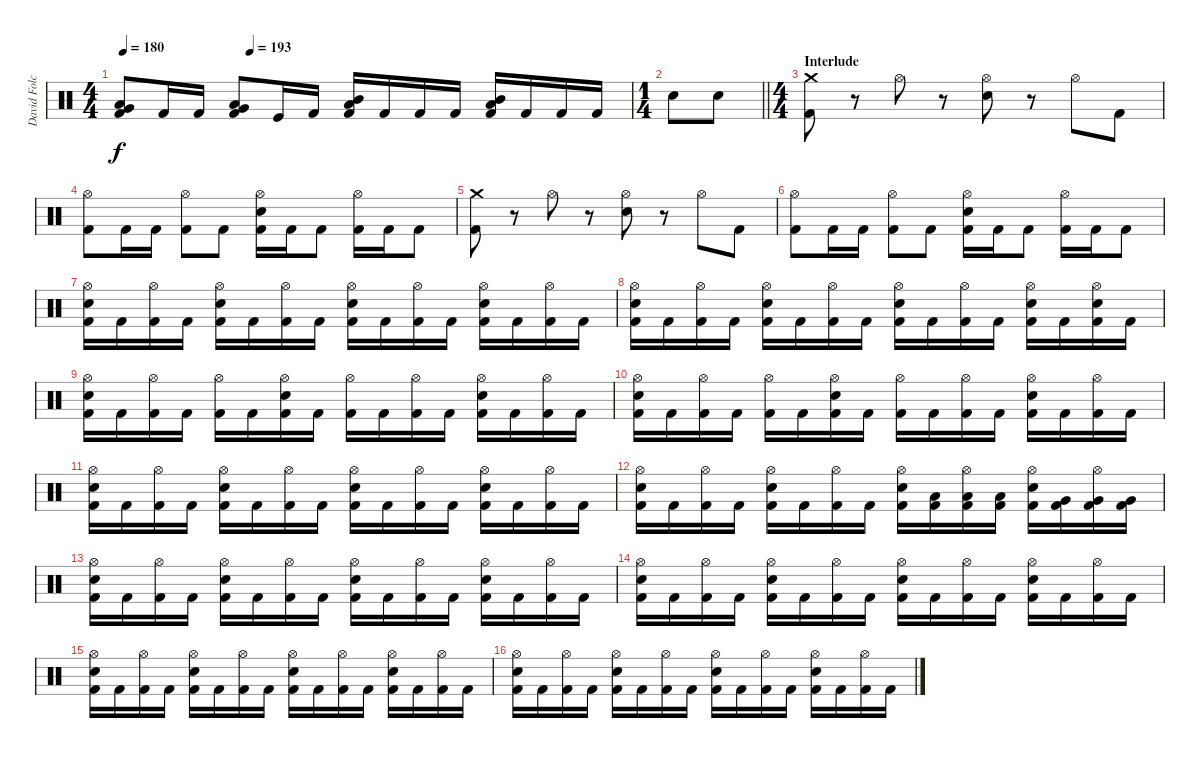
\track ("David Folchitto (Drums)" "David Folc") {instrument percussion}
\staff {score}
\articulation defaults
\ts (4 4)
\tempo 180
\tempo (193 0.25)
\clef neutral
\ks c
("Low Tom (hit)" "Very Low Tom (hit)" "Kick (hit) 2").8{dy f} "Kick (hit) 2".16 "Kick (hit) 2".16 ("Low Tom (hit)" "Very Low Tom (hit)" "Kick (hit) 2").8 "Kick (hit)".16 "Kick (hit) 2".16 ("Mid Tom (hit)" "Low Tom (hit)" "Kick (hit) 2").16 "Kick (hit) 2".16 "Kick (hit) 2".16 "Kick (hit) 2".16 ("Mid Tom (hit)" "Low Tom (hit)" "Kick (hit) 2").16 "Kick (hit) 2".16 "Kick (hit) 2".16 "Kick (hit) 2".16 |
\ts (1 4)
\barLineRight lightlight "Snare (hit) 2".8 "Snare (hit) 2".8
|
\ts (4 4)
\section ("" "Interlude")
("Crash medium (hit)" "Kick (hit) 2").8 r.8 "Hi-Hat (open)".8 r.8 ("Hi-Hat (open)" "Snare (hit) 2").8 r.8 "Hi-Hat (open)".8 "Kick (hit) 2".8 |
("Hi-Hat (open)" "Kick (hit) 2").8 "Kick (hit) 2".16 "Kick (hit) 2".16 ("Hi-Hat (open)" "Kick (hit) 2").8 "Kick (hit) 2".8 ("Hi-Hat (open)" "Snare (hit) 2" "Kick (hit) 2").16 "Kick (hit) 2".16 "Kick (hit) 2".8 ("Hi-Hat (open)" "Kick (hit) 2").16 "Kick (hit) 2".16 "Kick (hit) 2".8 |
("Crash medium (hit)" "Kick (hit) 2").8 r.8 "Hi-Hat (open)".8 r.8 ("Hi-Hat (open)" "Snare (hit) 2").8 r.8 "Hi-Hat (open)".8 "Kick (hit) 2".8 |
("Hi-Hat (open)" "Kick (hit) 2").8 "Kick (hit) 2".16 "Kick (hit) 2".16 ("Hi-Hat (open)" "Kick (hit) 2").8 "Kick (hit) 2".8 ("Hi-Hat (open)" "Snare (hit) 2" "Kick (hit) 2").16 "Kick (hit) 2".16 "Kick (hit) 2".8 ("Hi-Hat (open)" "Kick (hit) 2").16 "Kick (hit) 2".16 "Kick (hit) 2".8 |
("Hi-Hat (open)" "Snare (hit) 2" "Kick (hit) 2").16 "Kick (hit) 2".16 ("Hi-Hat (open)" "Kick (hit) 2").16 "Kick (hit) 2".16 ("Hi-Hat (open)" "Snare (hit) 2" "Kick (hit) 2").16 "Kick (hit) 2".16 ("Hi-Hat (open)" "Kick (hit) 2").16 "Kick (hit) 2".16 ("Hi-Hat (open)" "Snare (hit) 2" "Kick (hit) 2").16 "Kick (hit) 2".16 ("Hi-Hat (open)" "Kick (hit) 2").16 "Kick (hit) 2".16 ("Hi-Hat (open)" "Snare (hit) 2" "Kick (hit) 2").16 "Kick (hit) 2".16 ("Hi-Hat (open)" "Kick (hit) 2").16 "Kick (hit) 2".16 |
("Hi-Hat (open)" "Snare (hit) 2" "Kick (hit) 2").16 "Kick (hit) 2".16 ("Hi-Hat (open)" "Kick (hit) 2").16 "Kick (hit) 2".16 ("Hi-Hat (open)" "Snare (hit) 2" "Kick (hit) 2").16 "Kick (hit) 2".16 ("Hi-Hat (open)" "Kick (hit) 2").16 "Kick (hit) 2".16 ("Hi-Hat (open)" "Snare (hit) 2" "Kick (hit) 2").16 "Kick (hit) 2".16 ("Hi-Hat (open)" "Kick (hit) 2").16 "Kick (hit) 2".16 ("Hi-Hat (open)" "Snare (hit) 2" "Kick (hit) 2").16 "Kick (hit) 2".16 ("Hi-Hat (open)" "Snare (hit) 2" "Kick (hit) 2").16 "Kick (hit) 2".16 |
("Hi-Hat (open)" "Snare (hit) 2" "Kick (hit) 2").16 "Kick (hit) 2".16 ("Hi-Hat (open)" "Kick (hit) 2").16 "Kick (hit) 2".16 ("Hi-Hat (open)" "Kick (hit) 2").16 "Kick (hit) 2".16 ("Hi-Hat (open)" "Snare (hit) 2" "Kick (hit) 2").16 "Kick (hit) 2".16 ("Hi-Hat (open)" "Kick (hit) 2").16 "Kick (hit) 2".16 ("Hi-Hat (open)" "Kick (hit) 2").16 "Kick (hit) 2".16 ("Hi-Hat (open)" "Snare (hit) 2" "Kick (hit) 2").16 "Kick (hit) 2".16 ("Hi-Hat (open)" "Kick (hit) 2").16 "Kick (hit) 2".16 |
("Hi-Hat (open)" "Snare (hit) 2" "Kick (hit) 2").16 "Kick (hit) 2".16 ("Hi-Hat (open)" "Kick (hit) 2").16 "Kick (hit) 2".16 ("Hi-Hat (open)" "Kick (hit) 2").16 "Kick (hit) 2".16 ("Hi-Hat (open)" "Snare (hit) 2" "Kick (hit) 2").16 "Kick (hit) 2".16 ("Hi-Hat (open)" "Kick (hit) 2").16 "Kick (hit) 2".16 ("Hi-Hat (open)" "Kick (hit) 2").16 "Kick (hit) 2".16 ("Hi-Hat (open)" "Snare (hit) 2" "Kick (hit) 2").16 "Kick (hit) 2".16 ("Hi-Hat (open)" "Kick (hit) 2").16 "Kick (hit) 2".16 |
("Hi-Hat (open)" "Snare (hit) 2" "Kick (hit) 2").16 "Kick (hit) 2".16 ("Hi-Hat (open)" "Kick (hit) 2").16 "Kick (hit) 2".16 ("Hi-Hat (open)" "Snare (hit) 2" "Kick (hit) 2").16 "Kick (hit) 2".16 ("Hi-Hat (open)" "Kick (hit) 2").16 "Kick (hit) 2".16 ("Hi-Hat (open)" "Snare (hit) 2" "Kick (hit) 2").16 "Kick (hit) 2".16 ("Hi-Hat (open)" "Kick (hit) 2").16 "Kick (hit) 2".16 ("Hi-Hat (open)" "Snare (hit) 2" "Kick (hit) 2").16 "Kick (hit) 2".16 ("Hi-Hat (open)" "Kick (hit) 2").16 "Kick (hit) 2".16 |
("Hi-Hat (open)" "Snare (hit) 2" "Kick (hit) 2").16 "Kick (hit) 2".16 ("Hi-Hat (open)" "Kick (hit) 2").16 "Kick (hit) 2".16 ("Hi-Hat (open)" "Snare (hit) 2" "Kick (hit) 2").16 "Kick (hit) 2".16 ("Hi-Hat (open)" "Kick (hit) 2").16 "Kick (hit) 2".16 ("Hi-Hat (open)" "Snare (hit) 2" "Kick (hit) 2").16 ("Low Tom (hit)" "Kick (hit) 2").16 ("Hi-Hat (open)" "Low Tom (hit)" "Kick (hit) 2").16 ("Low Tom (hit)" "Kick (hit) 2").16 ("Hi-Hat (open)" "Snare (hit) 2" "Kick (hit) 2").16 ("Very Low Tom (hit)" "Kick (hit) 2").16 ("Hi-Hat (open)" "Very Low Tom (hit)" "Kick (hit) 2").16 ("Very Low Tom (hit)" "Kick (hit) 2").16 |
("Hi-Hat (open)" "Snare (hit) 2" "Kick (hit) 2").16 "Kick (hit) 2".16 ("Hi-Hat (open)" "Kick (hit) 2").16 "Kick (hit) 2".16 ("Hi-Hat (open)" "Snare (hit) 2" "Kick (hit) 2").16 "Kick (hit) 2".16 ("Hi-Hat (open)" "Kick (hit) 2").16 "Kick (hit) 2".16 ("Hi-Hat (open)" "Snare (hit) 2" "Kick (hit) 2").16 "Kick (hit) 2".16 ("Hi-Hat (open)" "Kick (hit) 2").16 "Kick (hit) 2".16 ("Hi-Hat (open)" "Snare (hit) 2" "Kick (hit) 2").16 "Kick (hit) 2".16 ("Hi-Hat (open)" "Kick (hit) 2").16 "Kick (hit) 2".16 |
("Hi-Hat (open)" "Snare (hit) 2" "Kick (hit) 2").16 "Kick (hit) 2".16 ("Hi-Hat (open)" "Kick (hit) 2").16 "Kick (hit) 2".16 ("Hi-Hat (open)" "Snare (hit) 2" "Kick (hit) 2").16 "Kick (hit) 2".16 ("Hi-Hat (open)" "Kick (hit) 2").16 "Kick (hit) 2".16 ("Hi-Hat (open)" "Snare (hit) 2" "Kick (hit) 2").16 "Kick (hit) 2".16 ("Hi-Hat (open)" "Kick (hit) 2").16 "Kick (hit) 2".16 ("Hi-Hat (open)" "Snare (hit) 2" "Kick (hit) 2").16 "Kick (hit) 2".16 ("Hi-Hat (open)" "Kick (hit) 2").16 "Kick (hit) 2".16 |
("Hi-Hat (open)" "Snare (hit) 2" "Kick (hit) 2").16 "Kick (hit) 2".16 ("Hi-Hat (open)" "Kick (hit) 2").16 "Kick (hit) 2".16 ("Hi-Hat (open)" "Snare (hit) 2" "Kick (hit) 2").16 "Kick (hit) 2".16 ("Hi-Hat (open)" "Kick (hit) 2").16 "Kick (hit) 2".16 ("Hi-Hat (open)" "Snare (hit) 2" "Kick (hit) 2").16 "Kick (hit) 2".16 ("Hi-Hat (open)" "Kick (hit) 2").16 "Kick (hit) 2".16 ("Hi-Hat (open)" "Snare (hit) 2" "Kick (hit) 2").16 "Kick (hit) 2".16 ("Hi-Hat (open)" "Kick (hit) 2").16 "Kick (hit) 2".16 |
("Hi-Hat (open)" "Snare (hit) 2" "Kick (hit) 2").16 "Kick (hit) 2".16 ("Hi-Hat (open)" "Kick (hit) 2").16 "Kick (hit) 2".16 ("Hi-Hat (open)" "Snare (hit) 2" "Kick (hit) 2").16 "Kick (hit) 2".16 ("Hi-Hat (open)" "Kick (hit) 2").16 "Kick (hit) 2".16 ("Hi-Hat (open)" "Snare (hit) 2" "Kick (hit) 2").16 "Kick (hit) 2".16 ("Hi-Hat (open)" "Kick (hit) 2").16 "Kick (hit) 2".16 ("Hi-Hat (open)" "Snare (hit) 2" "Kick (hit) 2").16 "Kick (hit) 2".16 ("Hi-Hat (open)" "Kick (hit) 2").16 "Kick (hit) 2".16
